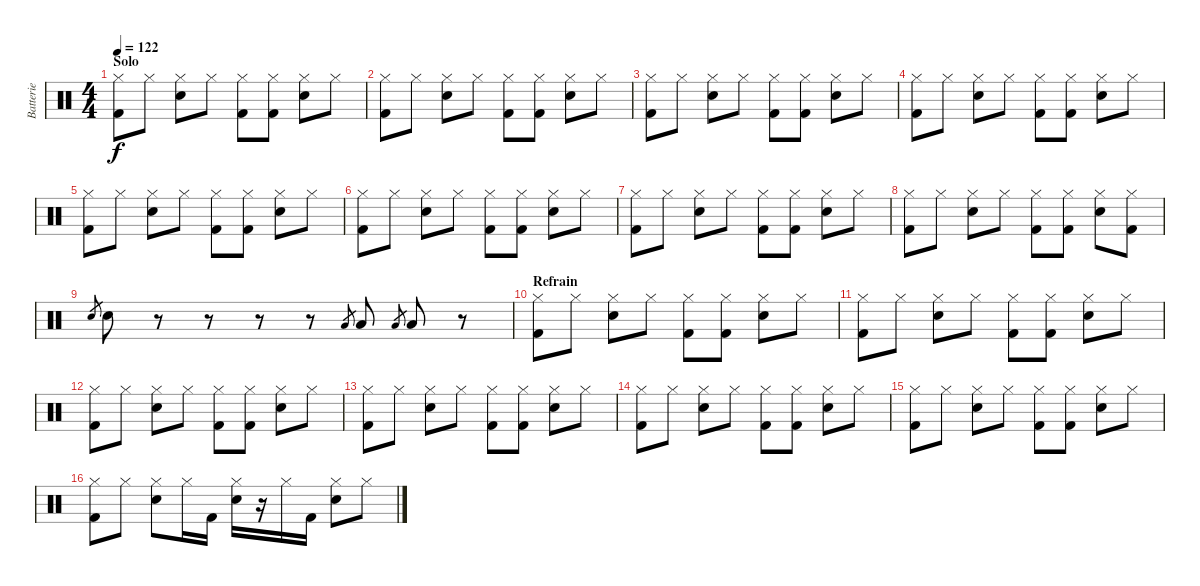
\track ("Batterie" "Batterie") {instrument percussion}
\staff {score}
\articulation defaults
\ts (4 4)
\section ("" "Solo")
\tempo 122
\clef neutral
\ks c
("Hi-Hat (closed)" "Kick (hit) 2").8{dy f} "Hi-Hat (closed)".8 ("Hi-Hat (closed)" "Snare (hit) 2").8 "Hi-Hat (closed)".8 ("Hi-Hat (closed)" "Kick (hit) 2").8 ("Hi-Hat (closed)" "Kick (hit) 2").8 ("Hi-Hat (closed)" "Snare (hit) 2").8 "Hi-Hat (closed)".8 |
("Hi-Hat (closed)" "Kick (hit) 2").8 "Hi-Hat (closed)".8 ("Hi-Hat (closed)" "Snare (hit) 2").8 "Hi-Hat (closed)".8 ("Hi-Hat (closed)" "Kick (hit) 2").8 ("Hi-Hat (closed)" "Kick (hit) 2").8 ("Hi-Hat (closed)" "Snare (hit) 2").8 "Hi-Hat (closed)".8 |
("Hi-Hat (closed)" "Kick (hit) 2").8 "Hi-Hat (closed)".8 ("Hi-Hat (closed)" "Snare (hit) 2").8 "Hi-Hat (closed)".8 ("Hi-Hat (closed)" "Kick (hit) 2").8 ("Hi-Hat (closed)" "Kick (hit) 2").8 ("Hi-Hat (closed)" "Snare (hit) 2").8 "Hi-Hat (closed)".8 |
("Hi-Hat (closed)" "Kick (hit) 2").8 "Hi-Hat (closed)".8 ("Hi-Hat (closed)" "Snare (hit) 2").8 "Hi-Hat (closed)".8 ("Hi-Hat (closed)" "Kick (hit) 2").8 ("Hi-Hat (closed)" "Kick (hit) 2").8 ("Hi-Hat (closed)" "Snare (hit) 2").8 "Hi-Hat (closed)".8 |
("Hi-Hat (closed)" "Kick (hit) 2").8 "Hi-Hat (closed)".8 ("Hi-Hat (closed)" "Snare (hit) 2").8 "Hi-Hat (closed)".8 ("Hi-Hat (closed)" "Kick (hit) 2").8 ("Hi-Hat (closed)" "Kick (hit) 2").8 ("Hi-Hat (closed)" "Snare (hit) 2").8 "Hi-Hat (closed)".8 |
("Hi-Hat (closed)" "Kick (hit) 2").8 "Hi-Hat (closed)".8 ("Hi-Hat (closed)" "Snare (hit) 2").8 "Hi-Hat (closed)".8 ("Hi-Hat (closed)" "Kick (hit) 2").8 ("Hi-Hat (closed)" "Kick (hit) 2").8 ("Hi-Hat (closed)" "Snare (hit) 2").8 "Hi-Hat (closed)".8 |
("Hi-Hat (closed)" "Kick (hit) 2").8 "Hi-Hat (closed)".8 ("Hi-Hat (closed)" "Snare (hit) 2").8 "Hi-Hat (closed)".8 ("Hi-Hat (closed)" "Kick (hit) 2").8 ("Hi-Hat (closed)" "Kick (hit) 2").8 ("Hi-Hat (closed)" "Snare (hit) 2").8 "Hi-Hat (closed)".8 |
("Hi-Hat (closed)" "Kick (hit) 2").8 "Hi-Hat (closed)".8 ("Hi-Hat (closed)" "Snare (hit) 2").8 "Hi-Hat (closed)".8 ("Hi-Hat (closed)" "Kick (hit) 2").8 ("Hi-Hat (closed)" "Kick (hit) 2").8 ("Hi-Hat (closed)" "Snare (hit) 2").8 ("Hi-Hat (closed)" "Kick (hit) 2").8 |
"Snare (hit) 2".8{gr} "Snare (hit) 2".8 r.8 r.8 r.8 r.8 "Low Floor Tom (hit)".8{gr} "Low Floor Tom (hit)".8 "Low Floor Tom (hit)".8{gr} "Low Floor Tom (hit)".8 r.8 |
\section ("" "Refrain")
("Hi-Hat (closed)" "Kick (hit) 2").8 "Hi-Hat (closed)".8 ("Hi-Hat (closed)" "Snare (hit) 2").8 "Hi-Hat (closed)".8 ("Hi-Hat (closed)" "Kick (hit) 2").8 ("Hi-Hat (closed)" "Kick (hit) 2").8 ("Hi-Hat (closed)" "Snare (hit) 2").8 "Hi-Hat (closed)".8 |
("Hi-Hat (closed)" "Kick (hit) 2").8 "Hi-Hat (closed)".8 ("Hi-Hat (closed)" "Snare (hit) 2").8 "Hi-Hat (closed)".8 ("Hi-Hat (closed)" "Kick (hit) 2").8 ("Hi-Hat (closed)" "Kick (hit) 2").8 ("Hi-Hat (closed)" "Snare (hit) 2").8 "Hi-Hat (closed)".8 |
("Hi-Hat (closed)" "Kick (hit) 2").8 "Hi-Hat (closed)".8 ("Hi-Hat (closed)" "Snare (hit) 2").8 "Hi-Hat (closed)".8 ("Hi-Hat (closed)" "Kick (hit) 2").8 ("Hi-Hat (closed)" "Kick (hit) 2").8 ("Hi-Hat (closed)" "Snare (hit) 2").8 "Hi-Hat (closed)".8 |
("Hi-Hat (closed)" "Kick (hit) 2").8 "Hi-Hat (closed)".8 ("Hi-Hat (closed)" "Snare (hit) 2").8 "Hi-Hat (closed)".8 ("Hi-Hat (closed)" "Kick (hit) 2").8 ("Hi-Hat (closed)" "Kick (hit) 2").8 ("Hi-Hat (closed)" "Snare (hit) 2").8 "Hi-Hat (closed)".8 |
("Hi-Hat (closed)" "Kick (hit) 2").8 "Hi-Hat (closed)".8 ("Hi-Hat (closed)" "Snare (hit) 2").8 "Hi-Hat (closed)".8 ("Hi-Hat (closed)" "Kick (hit) 2").8 ("Hi-Hat (closed)" "Kick (hit) 2").8 ("Hi-Hat (closed)" "Snare (hit) 2").8 "Hi-Hat (closed)".8 |
("Hi-Hat (closed)" "Kick (hit) 2").8 "Hi-Hat (closed)".8 ("Hi-Hat (closed)" "Snare (hit) 2").8 "Hi-Hat (closed)".8 ("Hi-Hat (closed)" "Kick (hit) 2").8 ("Hi-Hat (closed)" "Kick (hit) 2").8 ("Hi-Hat (closed)" "Snare (hit) 2").8 "Hi-Hat (closed)".8 |
("Hi-Hat (closed)" "Kick (hit) 2").8 "Hi-Hat (closed)".8 ("Hi-Hat (closed)" "Snare (hit) 2").8 "Hi-Hat (closed)".16 "Kick (hit) 2".16 ("Hi-Hat (closed)" "Snare (hit) 2").16 r.16 "Hi-Hat (closed)".16 "Kick (hit) 2".16 ("Hi-Hat (closed)" "Snare (hit) 2").8 "Hi-Hat (closed)".8
